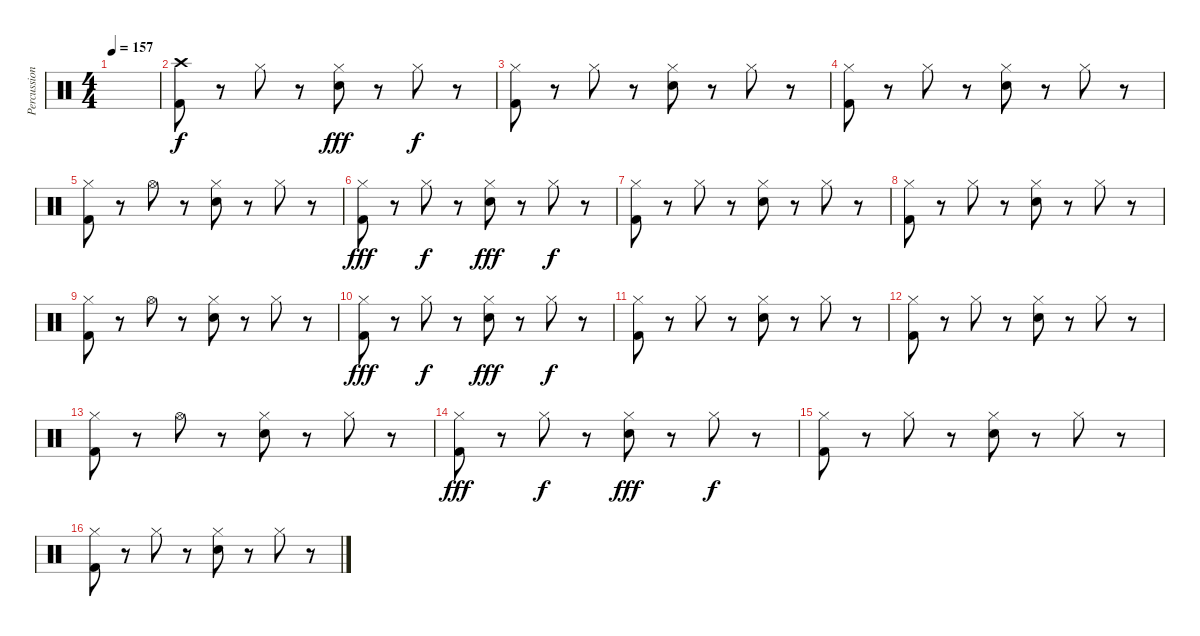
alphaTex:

\track ("Percussion" "Percussion") {instrument percussion}
\staff {score}
\articulation defaults
\ts (4 4)
\tempo 157
\clef neutral
\ks c
|
("Crash high (hit)" "Kick (hit) 2").8 r.8 "Hi-Hat (closed)".8{dy f} r.8 ("Hi-Hat (closed)" "Snare (hit) 2").8{dy fff} r.8 "Hi-Hat (closed)".8{dy f} r.8 |
("Hi-Hat (closed)" "Kick (hit) 2").8 r.8 "Hi-Hat (closed)".8 r.8 ("Hi-Hat (closed)" "Snare (hit) 2").8 r.8 "Hi-Hat (closed)".8 r.8 |
("Hi-Hat (closed)" "Kick (hit) 2").8 r.8 "Hi-Hat (closed)".8 r.8 ("Hi-Hat (closed)" "Snare (hit) 2").8 r.8 "Hi-Hat (closed)".8 r.8 |
("Hi-Hat (closed)" "Kick (hit) 2").8 r.8 "Hi-Hat (open)".8 r.8 ("Hi-Hat (closed)" "Snare (hit) 2").8 r.8 "Hi-Hat (closed)".8 r.8 |
("Hi-Hat (closed)" "Kick (hit) 2").8{dy fff} r.8 "Hi-Hat (closed)".8{dy f} r.8 ("Hi-Hat (closed)" "Snare (hit) 2").8{dy fff} r.8 "Hi-Hat (closed)".8{dy f} r.8 |
("Hi-Hat (closed)" "Kick (hit) 2").8 r.8 "Hi-Hat (closed)".8 r.8 ("Hi-Hat (closed)" "Snare (hit) 2").8 r.8 "Hi-Hat (closed)".8 r.8 |
("Hi-Hat (closed)" "Kick (hit) 2").8 r.8 "Hi-Hat (closed)".8 r.8 ("Hi-Hat (closed)" "Snare (hit) 2").8 r.8 "Hi-Hat (closed)".8 r.8 |
("Hi-Hat (closed)" "Kick (hit) 2").8 r.8 "Hi-Hat (open)".8 r.8 ("Hi-Hat (closed)" "Snare (hit) 2").8 r.8 "Hi-Hat (closed)".8 r.8 |
("Hi-Hat (closed)" "Kick (hit) 2").8{dy fff} r.8 "Hi-Hat (closed)".8{dy f} r.8 ("Hi-Hat (closed)" "Snare (hit) 2").8{dy fff} r.8 "Hi-Hat (closed)".8{dy f} r.8 |
("Hi-Hat (closed)" "Kick (hit) 2").8 r.8 "Hi-Hat (closed)".8 r.8 ("Hi-Hat (closed)" "Snare (hit) 2").8 r.8 "Hi-Hat (closed)".8 r.8 |
("Hi-Hat (closed)" "Kick (hit) 2").8 r.8 "Hi-Hat (closed)".8 r.8 ("Hi-Hat (closed)" "Snare (hit) 2").8 r.8 "Hi-Hat (closed)".8 r.8 |
("Hi-Hat (closed)" "Kick (hit) 2").8 r.8 "Hi-Hat (open)".8 r.8 ("Hi-Hat (closed)" "Snare (hit) 2").8 r.8 "Hi-Hat (closed)".8 r.8 |
("Hi-Hat (closed)" "Kick (hit) 2").8{dy fff} r.8 "Hi-Hat (closed)".8{dy f} r.8 ("Hi-Hat (closed)" "Snare (hit) 2").8{dy fff} r.8 "Hi-Hat (closed)".8{dy f} r.8 |
("Hi-Hat (closed)" "Kick (hit) 2").8 r.8 "Hi-Hat (closed)".8 r.8 ("Hi-Hat (closed)" "Snare (hit) 2").8 r.8 "Hi-Hat (closed)".8 r.8 |
("Hi-Hat (closed)" "Kick (hit) 2").8 r.8 "Hi-Hat (closed)".8 r.8 ("Hi-Hat (closed)" "Snare (hit) 2").8 r.8 "Hi-Hat (closed)".8 r.8
